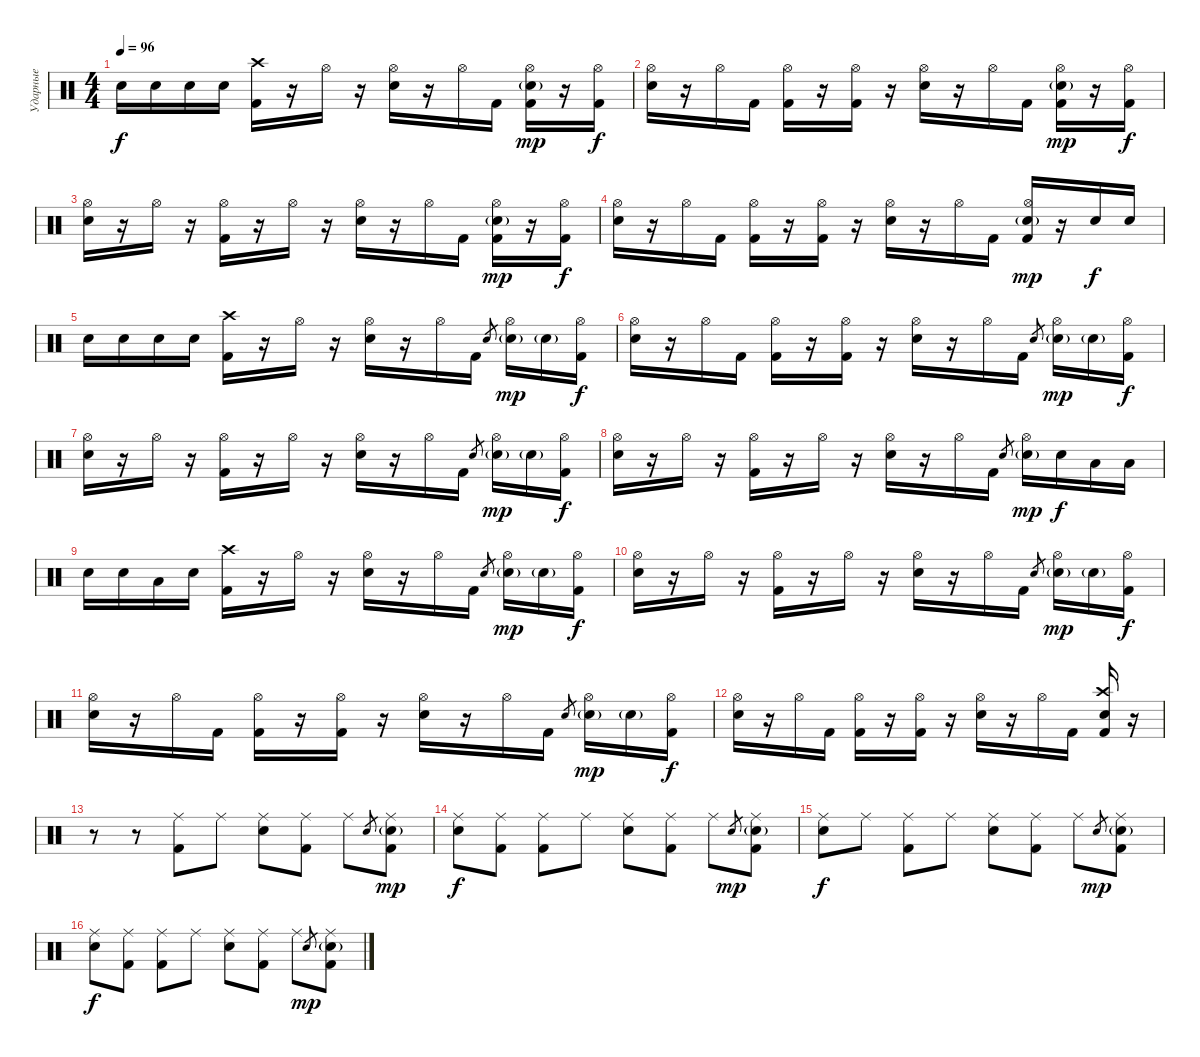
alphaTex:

\track ("Ударные" "Ударные") {instrument percussion}
\staff {score}
\articulation defaults
\ts (4 4)
\tempo 96
\clef neutral
\ks c "Electric Snare (hit)".16{dy f} "Electric Snare (hit)".16 "Electric Snare (hit)".16 "Electric Snare (hit)".16
("Crash high (hit)" "Kick (hit) 2").16 r.16 "Hi-Hat (open)".16 r.16 ("Hi-Hat (open)" "Electric Snare (hit)").16 r.16 "Hi-Hat (open)".16 "Kick (hit) 2".16 ("Hi-Hat (open)" "Snare (hit) 2"{g} "Kick (hit) 2").16{dy mp} r.16 ("Hi-Hat (open)" "Kick (hit) 2").16{dy f} |
("Hi-Hat (open)" "Electric Snare (hit)").16 r.16 "Hi-Hat (open)".16 "Kick (hit) 2".16 ("Hi-Hat (open)" "Kick (hit) 2").16 r.16 ("Hi-Hat (open)" "Kick (hit) 2").16 r.16 ("Hi-Hat (open)" "Electric Snare (hit)").16 r.16 "Hi-Hat (open)".16 "Kick (hit) 2".16 ("Hi-Hat (open)" "Snare (hit) 2"{g} "Kick (hit) 2").16{dy mp} r.16 ("Hi-Hat (open)" "Kick (hit) 2").16{dy f} |
("Hi-Hat (open)" "Electric Snare (hit)").16 r.16 "Hi-Hat (open)".16 r.16 ("Hi-Hat (open)" "Kick (hit) 2").16 r.16 "Hi-Hat (open)".16 r.16 ("Hi-Hat (open)" "Electric Snare (hit)").16 r.16 "Hi-Hat (open)".16 "Kick (hit) 2".16 ("Hi-Hat (open)" "Snare (hit) 2"{g} "Kick (hit) 2").16{dy mp} r.16 ("Hi-Hat (open)" "Kick (hit) 2").16{dy f} |
("Hi-Hat (open)" "Electric Snare (hit)").16 r.16 "Hi-Hat (open)".16 "Kick (hit) 2".16 ("Hi-Hat (open)" "Kick (hit) 2").16 r.16 ("Hi-Hat (open)" "Kick (hit) 2").16 r.16 ("Hi-Hat (open)" "Electric Snare (hit)").16 r.16 "Hi-Hat (open)".16 "Kick (hit) 2".16 ("Hi-Hat (open)" "Snare (hit) 2"{g} "Kick (hit) 2").16{dy mp} r.16 "Electric Snare (hit)".16{dy f} "Electric Snare (hit)".16 |
"Electric Snare (hit)".16 "Electric Snare (hit)".16 "Electric Snare (hit)".16 "Electric Snare (hit)".16 ("Crash high (hit)" "Kick (hit) 2").16 r.16 "Hi-Hat (open)".16 r.16 ("Hi-Hat (open)" "Electric Snare (hit)").16 r.16 "Hi-Hat (open)".16 "Kick (hit) 2".16 "Snare (hit) 2".8{gr} ("Hi-Hat (open)" "Snare (hit) 2"{g}).16{dy mp} "Electric Snare (hit)"{g}.16 ("Hi-Hat (open)" "Kick (hit) 2").16{dy f} |
("Hi-Hat (open)" "Electric Snare (hit)").16 r.16 "Hi-Hat (open)".16 "Kick (hit) 2".16 ("Hi-Hat (open)" "Kick (hit) 2").16 r.16 ("Hi-Hat (open)" "Kick (hit) 2").16 r.16 ("Hi-Hat (open)" "Electric Snare (hit)").16 r.16 "Hi-Hat (open)".16 "Kick (hit) 2".16 "Snare (hit) 2".8{gr} ("Hi-Hat (open)" "Snare (hit) 2"{g}).16{dy mp} "Electric Snare (hit)"{g}.16 ("Hi-Hat (open)" "Kick (hit) 2").16{dy f} |
("Hi-Hat (open)" "Electric Snare (hit)").16 r.16 "Hi-Hat (open)".16 r.16 ("Hi-Hat (open)" "Kick (hit) 2").16 r.16 "Hi-Hat (open)".16 r.16 ("Hi-Hat (open)" "Electric Snare (hit)").16 r.16 "Hi-Hat (open)".16 "Kick (hit) 2".16 "Snare (hit) 2".8{gr} ("Hi-Hat (open)" "Snare (hit) 2"{g}).16{dy mp} "Electric Snare (hit)"{g}.16 ("Hi-Hat (open)" "Kick (hit) 2").16{dy f} |
("Hi-Hat (open)" "Electric Snare (hit)").16 r.16 "Hi-Hat (open)".16 r.16 ("Hi-Hat (open)" "Kick (hit) 2").16 r.16 "Hi-Hat (open)".16 r.16 ("Hi-Hat (open)" "Electric Snare (hit)").16 r.16 "Hi-Hat (open)".16 "Kick (hit) 2".16 "Snare (hit) 2".8{gr} ("Hi-Hat (open)" "Snare (hit) 2"{g}).16{dy mp} "Electric Snare (hit)".16{dy f} "Low Tom (hit)".16 "Low Tom (hit)".16 |
"Electric Snare (hit)".16 "Electric Snare (hit)".16 "Low Tom (hit)".16 "Electric Snare (hit)".16 ("Crash high (hit)" "Kick (hit) 2").16 r.16 "Hi-Hat (open)".16 r.16 ("Hi-Hat (open)" "Electric Snare (hit)").16 r.16 "Hi-Hat (open)".16 "Kick (hit) 2".16 "Snare (hit) 2".8{gr} ("Hi-Hat (open)" "Snare (hit) 2"{g}).16{dy mp} "Electric Snare (hit)"{g}.16 ("Hi-Hat (open)" "Kick (hit) 2").16{dy f} |
("Hi-Hat (open)" "Electric Snare (hit)").16 r.16 "Hi-Hat (open)".16 r.16 ("Hi-Hat (open)" "Kick (hit) 2").16 r.16 "Hi-Hat (open)".16 r.16 ("Hi-Hat (open)" "Electric Snare (hit)").16 r.16 "Hi-Hat (open)".16 "Kick (hit) 2".16 "Snare (hit) 2".8{gr} ("Hi-Hat (open)" "Snare (hit) 2"{g}).16{dy mp} "Electric Snare (hit)"{g}.16 ("Hi-Hat (open)" "Kick (hit) 2").16{dy f} |
("Hi-Hat (open)" "Electric Snare (hit)").16 r.16 "Hi-Hat (open)".16 "Kick (hit) 2".16 ("Hi-Hat (open)" "Kick (hit) 2").16 r.16 ("Hi-Hat (open)" "Kick (hit) 2").16 r.16 ("Hi-Hat (open)" "Electric Snare (hit)").16 r.16 "Hi-Hat (open)".16 "Kick (hit) 2".16 "Snare (hit) 2".8{gr} ("Hi-Hat (open)" "Snare (hit) 2"{g}).16{dy mp} "Electric Snare (hit)"{g}.16 ("Hi-Hat (open)" "Kick (hit) 2").16{dy f} |
("Hi-Hat (open)" "Electric Snare (hit)").16 r.16 "Hi-Hat (open)".16 "Kick (hit) 2".16 ("Hi-Hat (open)" "Kick (hit) 2").16 r.16 ("Hi-Hat (open)" "Kick (hit) 2").16 r.16 ("Hi-Hat (open)" "Electric Snare (hit)").16 r.16 "Hi-Hat (open)".16 "Kick (hit) 2".16 ("Crash high (hit)" "Electric Snare (hit)" "Kick (hit) 2").16 r.16 |
r.8 r.8 ("Ride (middle)" "Kick (hit) 2").8 "Ride (middle)".8 ("Ride (middle)" "Snare (hit) 2").8 ("Ride (middle)" "Kick (hit) 2").8 "Ride (middle)".8 "Snare (hit) 2".8{gr} ("Ride (middle)" "Snare (hit) 2"{g} "Kick (hit) 2").8{dy mp} |
("Ride (middle)" "Snare (hit) 2").8{dy f} ("Ride (middle)" "Kick (hit) 2").8 ("Ride (middle)" "Kick (hit) 2").8 "Ride (middle)".8 ("Ride (middle)" "Electric Snare (hit)").8 ("Ride (middle)" "Kick (hit) 2").8 "Ride (middle)".8 "Electric Snare (hit)".8{gr dy mp} ("Ride (middle)" "Electric Snare (hit)"{g} "Kick (hit) 2").8 |
("Ride (middle)" "Electric Snare (hit)").8{dy f} "Ride (middle)".8 ("Ride (middle)" "Kick (hit) 2").8 "Ride (middle)".8 ("Ride (middle)" "Snare (hit) 2").8 ("Ride (middle)" "Kick (hit) 2").8 "Ride (middle)".8 "Snare (hit) 2".8{gr dy mp} ("Ride (middle)" "Snare (hit) 2"{g} "Kick (hit) 2").8 |
("Ride (middle)" "Snare (hit) 2").8{dy f} ("Ride (middle)" "Kick (hit) 2").8 ("Ride (middle)" "Kick (hit) 2").8 "Ride (middle)".8 ("Ride (middle)" "Electric Snare (hit)").8 ("Ride (middle)" "Kick (hit) 2").8 "Ride (middle)".8 "Electric Snare (hit)".8{gr dy mp} ("Ride (middle)" "Electric Snare (hit)"{g} "Kick (hit) 2").8
